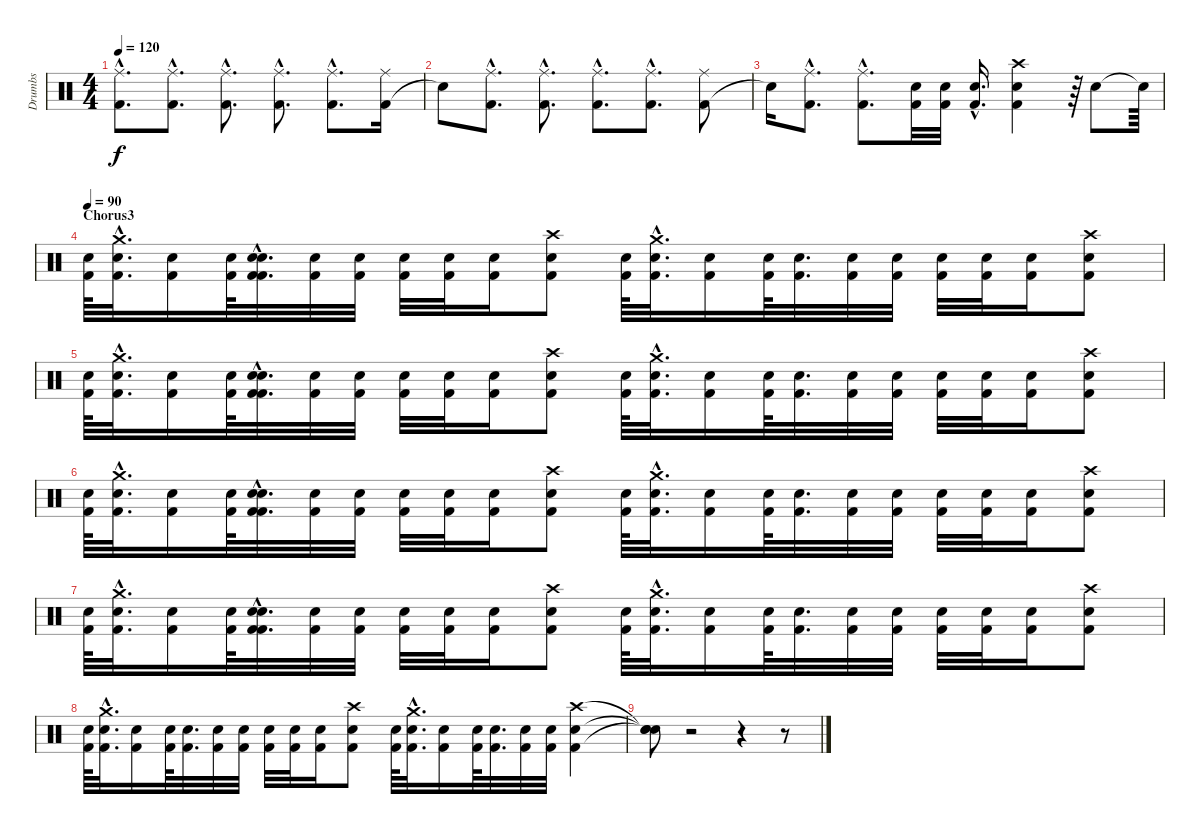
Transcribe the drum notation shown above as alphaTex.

\track ("Drumbs" "Drumbs") {instrument percussion}
\staff {score}
\articulation defaults
\ts (4 4)
\tempo 120
\clef neutral
\ks c
("Kick (hit) 2"{hac} "Ride (middle)"{hac}).8{d dy f} ("Kick (hit) 2"{hac} "Ride (middle)"{hac}).8{d} ("Kick (hit) 2"{hac} "Ride (middle)"{hac}).8{d} ("Kick (hit) 2"{hac} "Ride (middle)"{hac}).8{d} ("Kick (hit) 2"{hac} "Ride (middle)"{hac}).8{d} ("Kick (hit) 2" "Ride (middle)").16 |
"Snare (hit)"{t}.8 ("Kick (hit) 2"{hac} "Ride (middle)"{hac}).8{d} ("Kick (hit) 2"{hac} "Ride (middle)"{hac}).8{d} ("Kick (hit) 2"{hac} "Ride (middle)"{hac}).8{d} ("Kick (hit) 2"{hac} "Ride (middle)"{hac}).8{d} ("Kick (hit) 2" "Ride (middle)").8 |
"Snare (hit)"{t}.16 ("Kick (hit) 2"{hac} "Ride (middle)"{hac}).8{d} ("Kick (hit) 2"{hac} "Ride (middle)"{hac}).8{d} ("Kick (hit) 2" "Electric Snare (hit)").32 ("Kick (hit) 2" "Electric Snare (hit)").32 ("Kick (hit) 2"{hac} "Electric Snare (hit)"{hac}).16{d} ("Kick (hit) 2" "Electric Snare (hit)" "Crash high (hit)").4 r.64 "Snare (hit) 2".8 "Snare (hit)"{t}.64 |
\section ("" "Chorus3")
\tempo 90
("Electric Snare (hit)" "Kick (hit) 2").64 ("Electric Snare (hit)" "Kick (hit) 2" "Crash medium (hit)"{hac}).32{d} ("Electric Snare (hit)" "Kick (hit) 2").16 ("Electric Snare (hit)" "Kick (hit) 2").64 ("Electric Snare (hit)" "Kick (hit) 2" "Electric Snare (hit)"{hac} "Kick (hit) 2"{hac}).32{d} ("Electric Snare (hit)" "Kick (hit) 2").32 ("Electric Snare (hit)" "Kick (hit) 2").32 ("Electric Snare (hit)" "Kick (hit) 2").32 ("Electric Snare (hit)" "Kick (hit) 2").32 ("Electric Snare (hit)" "Kick (hit) 2").16 ("Electric Snare (hit)" "Kick (hit) 2" "Crash high (hit)").8 ("Electric Snare (hit)" "Kick (hit) 2").64 ("Electric Snare (hit)" "Kick (hit) 2" "Crash medium (hit)"{hac}).32{d} ("Electric Snare (hit)" "Kick (hit) 2").16 ("Electric Snare (hit)" "Kick (hit) 2").64 ("Electric Snare (hit)" "Kick (hit) 2").32{d} ("Electric Snare (hit)" "Kick (hit) 2").32 ("Electric Snare (hit)" "Kick (hit) 2").32 ("Electric Snare (hit)" "Kick (hit) 2").32 ("Electric Snare (hit)" "Kick (hit) 2").32 ("Electric Snare (hit)" "Kick (hit) 2").16 ("Electric Snare (hit)" "Kick (hit) 2" "Crash high (hit)").8 |
("Electric Snare (hit)" "Kick (hit) 2").64 ("Electric Snare (hit)" "Kick (hit) 2" "Crash medium (hit)"{hac}).32{d} ("Electric Snare (hit)" "Kick (hit) 2").16 ("Electric Snare (hit)" "Kick (hit) 2").64 ("Electric Snare (hit)" "Kick (hit) 2" "Electric Snare (hit)"{hac} "Kick (hit) 2"{hac}).32{d} ("Electric Snare (hit)" "Kick (hit) 2").32 ("Electric Snare (hit)" "Kick (hit) 2").32 ("Electric Snare (hit)" "Kick (hit) 2").32 ("Electric Snare (hit)" "Kick (hit) 2").32 ("Electric Snare (hit)" "Kick (hit) 2").16 ("Electric Snare (hit)" "Kick (hit) 2" "Crash high (hit)").8 ("Electric Snare (hit)" "Kick (hit) 2").64 ("Electric Snare (hit)" "Kick (hit) 2" "Crash medium (hit)"{hac}).32{d} ("Electric Snare (hit)" "Kick (hit) 2").16 ("Electric Snare (hit)" "Kick (hit) 2").64 ("Electric Snare (hit)" "Kick (hit) 2").32{d} ("Electric Snare (hit)" "Kick (hit) 2").32 ("Electric Snare (hit)" "Kick (hit) 2").32 ("Electric Snare (hit)" "Kick (hit) 2").32 ("Electric Snare (hit)" "Kick (hit) 2").32 ("Electric Snare (hit)" "Kick (hit) 2").16 ("Electric Snare (hit)" "Kick (hit) 2" "Crash high (hit)").8 |
("Electric Snare (hit)" "Kick (hit) 2").64 ("Electric Snare (hit)" "Kick (hit) 2" "Crash medium (hit)"{hac}).32{d} ("Electric Snare (hit)" "Kick (hit) 2").16 ("Electric Snare (hit)" "Kick (hit) 2").64 ("Electric Snare (hit)" "Kick (hit) 2" "Electric Snare (hit)"{hac} "Kick (hit) 2"{hac}).32{d} ("Electric Snare (hit)" "Kick (hit) 2").32 ("Electric Snare (hit)" "Kick (hit) 2").32 ("Electric Snare (hit)" "Kick (hit) 2").32 ("Electric Snare (hit)" "Kick (hit) 2").32 ("Electric Snare (hit)" "Kick (hit) 2").16 ("Electric Snare (hit)" "Kick (hit) 2" "Crash high (hit)").8 ("Electric Snare (hit)" "Kick (hit) 2").64 ("Electric Snare (hit)" "Kick (hit) 2" "Crash medium (hit)"{hac}).32{d} ("Electric Snare (hit)" "Kick (hit) 2").16 ("Electric Snare (hit)" "Kick (hit) 2").64 ("Electric Snare (hit)" "Kick (hit) 2").32{d} ("Electric Snare (hit)" "Kick (hit) 2").32 ("Electric Snare (hit)" "Kick (hit) 2").32 ("Electric Snare (hit)" "Kick (hit) 2").32 ("Electric Snare (hit)" "Kick (hit) 2").32 ("Electric Snare (hit)" "Kick (hit) 2").16 ("Electric Snare (hit)" "Kick (hit) 2" "Crash high (hit)").8 |
("Electric Snare (hit)" "Kick (hit) 2").64 ("Electric Snare (hit)" "Kick (hit) 2" "Crash medium (hit)"{hac}).32{d} ("Electric Snare (hit)" "Kick (hit) 2").16 ("Electric Snare (hit)" "Kick (hit) 2").64 ("Electric Snare (hit)" "Kick (hit) 2" "Electric Snare (hit)"{hac} "Kick (hit) 2"{hac}).32{d} ("Electric Snare (hit)" "Kick (hit) 2").32 ("Electric Snare (hit)" "Kick (hit) 2").32 ("Electric Snare (hit)" "Kick (hit) 2").32 ("Electric Snare (hit)" "Kick (hit) 2").32 ("Electric Snare (hit)" "Kick (hit) 2").16 ("Electric Snare (hit)" "Kick (hit) 2" "Crash high (hit)").8 ("Electric Snare (hit)" "Kick (hit) 2").64 ("Electric Snare (hit)" "Kick (hit) 2" "Crash medium (hit)"{hac}).32{d} ("Electric Snare (hit)" "Kick (hit) 2").16 ("Electric Snare (hit)" "Kick (hit) 2").64 ("Electric Snare (hit)" "Kick (hit) 2").32{d} ("Electric Snare (hit)" "Kick (hit) 2").32 ("Electric Snare (hit)" "Kick (hit) 2").32 ("Electric Snare (hit)" "Kick (hit) 2").32 ("Electric Snare (hit)" "Kick (hit) 2").32 ("Electric Snare (hit)" "Kick (hit) 2").16 ("Electric Snare (hit)" "Kick (hit) 2" "Crash high (hit)").8 |
("Electric Snare (hit)" "Kick (hit) 2").64 ("Electric Snare (hit)" "Kick (hit) 2" "Crash medium (hit)"{hac}).32{d} ("Electric Snare (hit)" "Kick (hit) 2").16 ("Electric Snare (hit)" "Kick (hit) 2").64 ("Electric Snare (hit)" "Kick (hit) 2").32{d} ("Electric Snare (hit)" "Kick (hit) 2").32 ("Electric Snare (hit)" "Kick (hit) 2").32 ("Electric Snare (hit)" "Kick (hit) 2").32 ("Electric Snare (hit)" "Kick (hit) 2").32 ("Electric Snare (hit)" "Kick (hit) 2").16 ("Electric Snare (hit)" "Kick (hit) 2" "Crash high (hit)").8 ("Electric Snare (hit)" "Kick (hit) 2").64 ("Electric Snare (hit)" "Kick (hit) 2" "Crash medium (hit)"{hac}).32{d} ("Electric Snare (hit)" "Kick (hit) 2").16 ("Electric Snare (hit)" "Kick (hit) 2").64 ("Electric Snare (hit)" "Kick (hit) 2").32{d} ("Electric Snare (hit)" "Kick (hit) 2").32 ("Electric Snare (hit)" "Kick (hit) 2").32 ("Electric Snare (hit)" "Kick (hit) 2" "Crash high (hit)").4 |
("Snare (hit)"{t} "Snare (hit)"{t} "Snare (hit)"{t}).8 r.2 r.4 r.8
